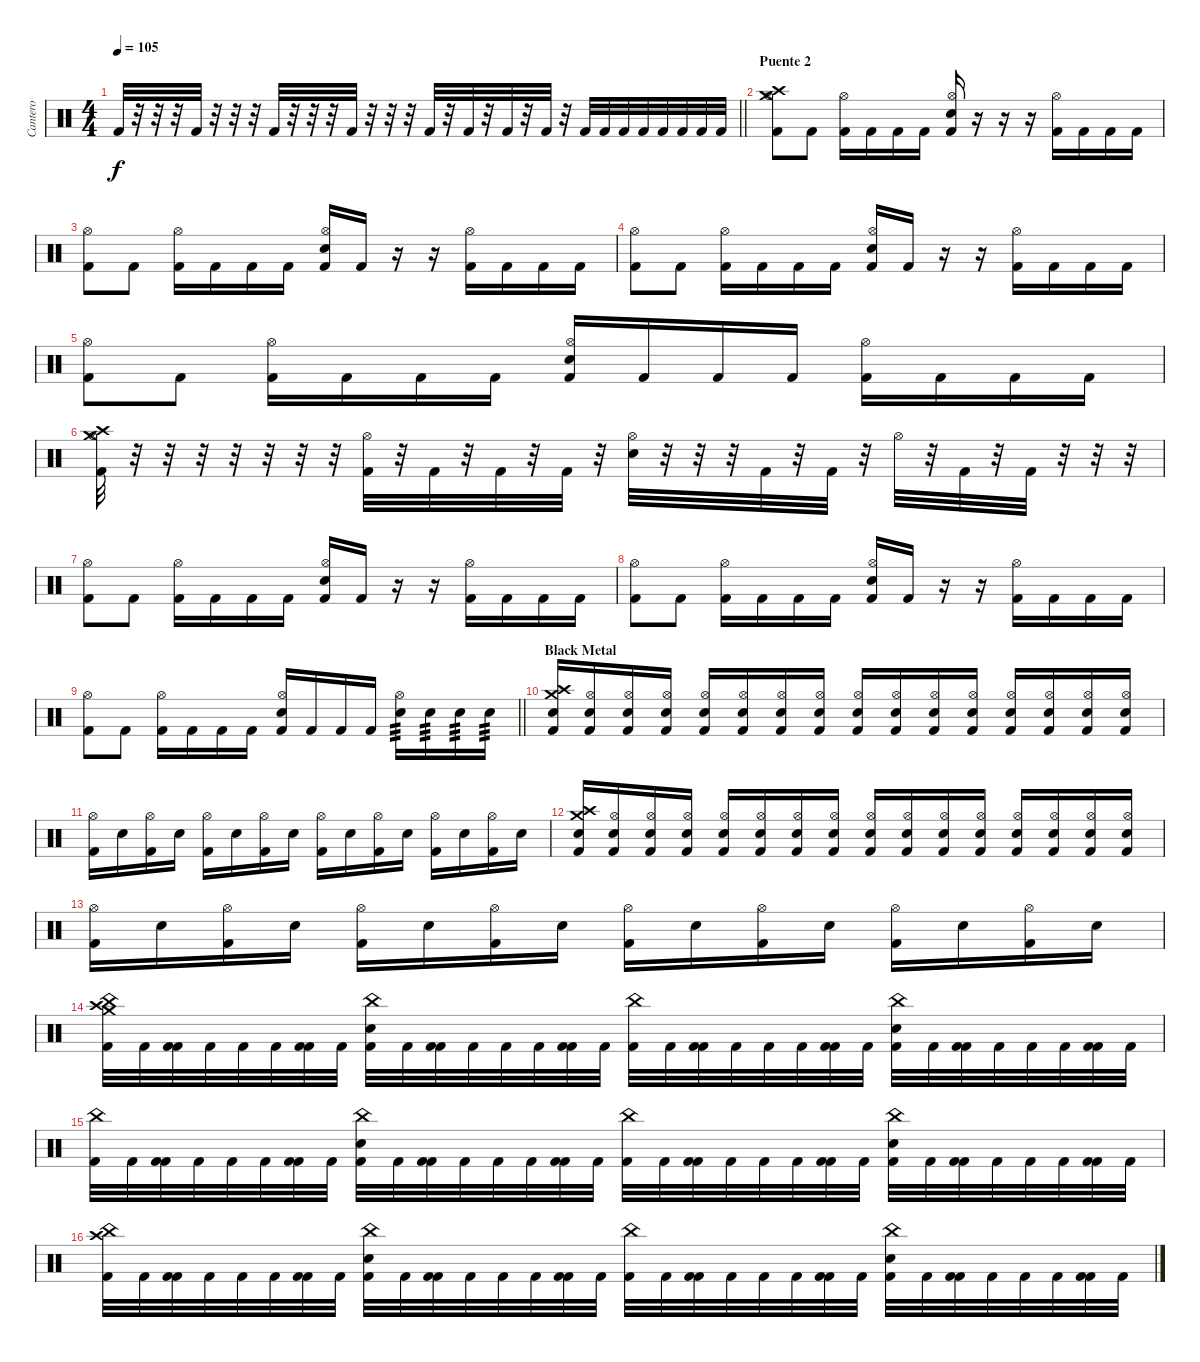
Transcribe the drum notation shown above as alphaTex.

\track ("Cantero" "Cantero") {instrument percussion}
\staff {score}
\articulation defaults
\ts (4 4)
\tempo 105
\clef neutral
\barLineRight lightlight
\ks c "Kick (hit) 2".32{dy f}
r.32 r.32 r.32 "Kick (hit) 2".32 r.32 r.32 r.32 "Kick (hit) 2".32 r.32 r.32 r.32 "Kick (hit) 2".32 r.32 r.32 r.32 "Kick (hit) 2".32 r.32 "Kick (hit) 2".32 r.32 "Kick (hit) 2".32 r.32 "Kick (hit) 2".32 r.32 "Kick (hit) 2".32 "Kick (hit) 2".32 "Kick (hit) 2".32 "Kick (hit) 2".32 "Kick (hit) 2".32 "Kick (hit) 2".32 "Kick (hit) 2".32 "Kick (hit) 2".32 |
\section ("" "Puente 2")
("Kick (hit) 2" "Hi-Hat (open)" "Crash high (hit)" "Crash medium (hit)").8 "Kick (hit) 2".8 ("Kick (hit) 2" "Hi-Hat (open)").16 "Kick (hit) 2".16 "Kick (hit) 2".16 "Kick (hit) 2".16 ("Kick (hit) 2" "Hi-Hat (open)" "Electric Snare (hit)").16 r.16 r.16 r.16 ("Kick (hit) 2" "Hi-Hat (open)").16 "Kick (hit) 2".16 "Kick (hit) 2".16 "Kick (hit) 2".16 |
("Kick (hit) 2" "Hi-Hat (open)").8 "Kick (hit) 2".8 ("Kick (hit) 2" "Hi-Hat (open)").16 "Kick (hit) 2".16 "Kick (hit) 2".16 "Kick (hit) 2".16 ("Kick (hit) 2" "Hi-Hat (open)" "Electric Snare (hit)").16 "Kick (hit) 2".16 r.16 r.16 ("Kick (hit) 2" "Hi-Hat (open)").16 "Kick (hit) 2".16 "Kick (hit) 2".16 "Kick (hit) 2".16 |
("Kick (hit) 2" "Hi-Hat (open)").8 "Kick (hit) 2".8 ("Kick (hit) 2" "Hi-Hat (open)").16 "Kick (hit) 2".16 "Kick (hit) 2".16 "Kick (hit) 2".16 ("Kick (hit) 2" "Hi-Hat (open)" "Electric Snare (hit)").16 "Kick (hit) 2".16 r.16 r.16 ("Kick (hit) 2" "Hi-Hat (open)").16 "Kick (hit) 2".16 "Kick (hit) 2".16 "Kick (hit) 2".16 |
("Kick (hit) 2" "Hi-Hat (open)").8 "Kick (hit) 2".8 ("Kick (hit) 2" "Hi-Hat (open)").16 "Kick (hit) 2".16 "Kick (hit) 2".16 "Kick (hit) 2".16 ("Kick (hit) 2" "Hi-Hat (open)" "Electric Snare (hit)").16 "Kick (hit) 2".16 "Kick (hit) 2".16 "Kick (hit) 2".16 ("Kick (hit) 2" "Hi-Hat (open)").16 "Kick (hit) 2".16 "Kick (hit) 2".16 "Kick (hit) 2".16 |
("Kick (hit) 2" "Crash medium (hit)" "Hi-Hat (open)" "Crash high (hit)").32 r.32 r.32 r.32 r.32 r.32 r.32 r.32 ("Kick (hit) 2" "Hi-Hat (open)").32 r.32 "Kick (hit) 2".32 r.32 "Kick (hit) 2".32 r.32 "Kick (hit) 2".32 r.32 ("Electric Snare (hit)" "Hi-Hat (open)").32 r.32 r.32 r.32 "Kick (hit) 2".32 r.32 "Kick (hit) 2".32 r.32 "Hi-Hat (open)".32 r.32 "Kick (hit) 2".32 r.32 "Kick (hit) 2".32 r.32 r.32 r.32 |
("Kick (hit) 2" "Hi-Hat (open)").8 "Kick (hit) 2".8 ("Kick (hit) 2" "Hi-Hat (open)").16 "Kick (hit) 2".16 "Kick (hit) 2".16 "Kick (hit) 2".16 ("Kick (hit) 2" "Hi-Hat (open)" "Electric Snare (hit)").16 "Kick (hit) 2".16 r.16 r.16 ("Kick (hit) 2" "Hi-Hat (open)").16 "Kick (hit) 2".16 "Kick (hit) 2".16 "Kick (hit) 2".16 |
("Kick (hit) 2" "Hi-Hat (open)").8 "Kick (hit) 2".8 ("Kick (hit) 2" "Hi-Hat (open)").16 "Kick (hit) 2".16 "Kick (hit) 2".16 "Kick (hit) 2".16 ("Kick (hit) 2" "Hi-Hat (open)" "Electric Snare (hit)").16 "Kick (hit) 2".16 r.16 r.16 ("Kick (hit) 2" "Hi-Hat (open)").16 "Kick (hit) 2".16 "Kick (hit) 2".16 "Kick (hit) 2".16 |
\barLineRight lightlight
("Kick (hit) 2" "Hi-Hat (open)").8 "Kick (hit) 2".8 ("Kick (hit) 2" "Hi-Hat (open)").16 "Kick (hit) 2".16 "Kick (hit) 2".16 "Kick (hit) 2".16 ("Kick (hit) 2" "Hi-Hat (open)" "Electric Snare (hit)").16 "Kick (hit) 2".16 "Kick (hit) 2".16 "Kick (hit) 2".16 ("Electric Snare (hit)" "Hi-Hat (open)").16{tp 3} "Electric Snare (hit)".16{tp 3} "Electric Snare (hit)".16{tp 3} "Electric Snare (hit)".16{tp 3} |
\section ("" "Black Metal")
("Electric Snare (hit)" "Crash high (hit)" "Kick (hit) 2" "Crash medium (hit)").16 ("Electric Snare (hit)" "Hi-Hat (open)" "Kick (hit) 2").16 ("Electric Snare (hit)" "Hi-Hat (open)" "Kick (hit) 2").16 ("Electric Snare (hit)" "Hi-Hat (open)" "Kick (hit) 2").16 ("Electric Snare (hit)" "Hi-Hat (open)" "Kick (hit) 2").16 ("Electric Snare (hit)" "Hi-Hat (open)" "Kick (hit) 2").16 ("Electric Snare (hit)" "Hi-Hat (open)" "Kick (hit) 2").16 ("Electric Snare (hit)" "Hi-Hat (open)" "Kick (hit) 2").16 ("Electric Snare (hit)" "Hi-Hat (open)" "Kick (hit) 2").16 ("Electric Snare (hit)" "Hi-Hat (open)" "Kick (hit) 2").16 ("Electric Snare (hit)" "Hi-Hat (open)" "Kick (hit) 2").16 ("Electric Snare (hit)" "Hi-Hat (open)" "Kick (hit) 2").16 ("Electric Snare (hit)" "Hi-Hat (open)" "Kick (hit) 2").16 ("Electric Snare (hit)" "Hi-Hat (open)" "Kick (hit) 2").16 ("Electric Snare (hit)" "Hi-Hat (open)" "Kick (hit) 2").16 ("Electric Snare (hit)" "Hi-Hat (open)" "Kick (hit) 2").16 |
("Kick (hit) 2" "Hi-Hat (open)").16 "Electric Snare (hit)".16 ("Kick (hit) 2" "Hi-Hat (open)").16 "Electric Snare (hit)".16 ("Kick (hit) 2" "Hi-Hat (open)").16 "Electric Snare (hit)".16 ("Kick (hit) 2" "Hi-Hat (open)").16 "Electric Snare (hit)".16 ("Kick (hit) 2" "Hi-Hat (open)").16 "Electric Snare (hit)".16 ("Kick (hit) 2" "Hi-Hat (open)").16 "Electric Snare (hit)".16 ("Kick (hit) 2" "Hi-Hat (open)").16 "Electric Snare (hit)".16 ("Kick (hit) 2" "Hi-Hat (open)").16 "Electric Snare (hit)".16 |
("Electric Snare (hit)" "Kick (hit) 2" "Crash high (hit)" "Crash medium (hit)").16 ("Electric Snare (hit)" "Hi-Hat (open)" "Kick (hit) 2").16 ("Electric Snare (hit)" "Hi-Hat (open)" "Kick (hit) 2").16 ("Electric Snare (hit)" "Hi-Hat (open)" "Kick (hit) 2").16 ("Electric Snare (hit)" "Hi-Hat (open)" "Kick (hit) 2").16 ("Electric Snare (hit)" "Hi-Hat (open)" "Kick (hit) 2").16 ("Electric Snare (hit)" "Hi-Hat (open)" "Kick (hit) 2").16 ("Electric Snare (hit)" "Hi-Hat (open)" "Kick (hit) 2").16 ("Electric Snare (hit)" "Hi-Hat (open)" "Kick (hit) 2").16 ("Electric Snare (hit)" "Hi-Hat (open)" "Kick (hit) 2").16 ("Electric Snare (hit)" "Hi-Hat (open)" "Kick (hit) 2").16 ("Electric Snare (hit)" "Hi-Hat (open)" "Kick (hit) 2").16 ("Electric Snare (hit)" "Hi-Hat (open)" "Kick (hit) 2").16 ("Electric Snare (hit)" "Hi-Hat (open)" "Kick (hit) 2").16 ("Electric Snare (hit)" "Hi-Hat (open)" "Kick (hit) 2").16 ("Electric Snare (hit)" "Hi-Hat (open)" "Kick (hit) 2").16 |
("Kick (hit) 2" "Hi-Hat (open)").16 "Electric Snare (hit)".16 ("Kick (hit) 2" "Hi-Hat (open)").16 "Electric Snare (hit)".16 ("Kick (hit) 2" "Hi-Hat (open)").16 "Electric Snare (hit)".16 ("Kick (hit) 2" "Hi-Hat (open)").16 "Electric Snare (hit)".16 ("Kick (hit) 2" "Hi-Hat (open)").16 "Electric Snare (hit)".16 ("Kick (hit) 2" "Hi-Hat (open)").16 "Electric Snare (hit)".16 ("Kick (hit) 2" "Hi-Hat (open)").16 "Electric Snare (hit)".16 ("Kick (hit) 2" "Hi-Hat (open)").16 "Electric Snare (hit)".16 |
("China (hit)" "Crash high (hit)" "Crash medium (hit)" "Kick (hit) 2").32 "Kick (hit) 2".32 ("Kick (hit) 2" "Kick (hit) 2").32 "Kick (hit) 2".32 "Kick (hit) 2".32 "Kick (hit) 2".32 ("Kick (hit) 2" "Kick (hit) 2").32 "Kick (hit) 2".32 ("China (hit)" "Electric Snare (hit)" "Kick (hit) 2").32 "Kick (hit) 2".32 ("Kick (hit) 2" "Kick (hit) 2").32 "Kick (hit) 2".32 "Kick (hit) 2".32 "Kick (hit) 2".32 ("Kick (hit) 2" "Kick (hit) 2").32 "Kick (hit) 2".32 ("China (hit)" "Kick (hit) 2").32 "Kick (hit) 2".32 ("Kick (hit) 2" "Kick (hit) 2").32 "Kick (hit) 2".32 "Kick (hit) 2".32 "Kick (hit) 2".32 ("Kick (hit) 2" "Kick (hit) 2").32 "Kick (hit) 2".32 ("China (hit)" "Electric Snare (hit)" "Kick (hit) 2").32 "Kick (hit) 2".32 ("Kick (hit) 2" "Kick (hit) 2").32 "Kick (hit) 2".32 "Kick (hit) 2".32 "Kick (hit) 2".32 ("Kick (hit) 2" "Kick (hit) 2").32 "Kick (hit) 2".32 |
("China (hit)" "Kick (hit) 2").32 "Kick (hit) 2".32 ("Kick (hit) 2" "Kick (hit) 2").32 "Kick (hit) 2".32 "Kick (hit) 2".32 "Kick (hit) 2".32 ("Kick (hit) 2" "Kick (hit) 2").32 "Kick (hit) 2".32 ("China (hit)" "Electric Snare (hit)" "Kick (hit) 2").32 "Kick (hit) 2".32 ("Kick (hit) 2" "Kick (hit) 2").32 "Kick (hit) 2".32 "Kick (hit) 2".32 "Kick (hit) 2".32 ("Kick (hit) 2" "Kick (hit) 2").32 "Kick (hit) 2".32 ("China (hit)" "Kick (hit) 2").32 "Kick (hit) 2".32 ("Kick (hit) 2" "Kick (hit) 2").32 "Kick (hit) 2".32 "Kick (hit) 2".32 "Kick (hit) 2".32 ("Kick (hit) 2" "Kick (hit) 2").32 "Kick (hit) 2".32 ("China (hit)" "Electric Snare (hit)" "Kick (hit) 2").32 "Kick (hit) 2".32 ("Kick (hit) 2" "Kick (hit) 2").32 "Kick (hit) 2".32 "Kick (hit) 2".32 "Kick (hit) 2".32 ("Kick (hit) 2" "Kick (hit) 2").32 "Kick (hit) 2".32 |
("China (hit)" "Crash high (hit)" "Kick (hit) 2").32 "Kick (hit) 2".32 ("Kick (hit) 2" "Kick (hit) 2").32 "Kick (hit) 2".32 "Kick (hit) 2".32 "Kick (hit) 2".32 ("Kick (hit) 2" "Kick (hit) 2").32 "Kick (hit) 2".32 ("China (hit)" "Electric Snare (hit)" "Kick (hit) 2").32 "Kick (hit) 2".32 ("Kick (hit) 2" "Kick (hit) 2").32 "Kick (hit) 2".32 "Kick (hit) 2".32 "Kick (hit) 2".32 ("Kick (hit) 2" "Kick (hit) 2").32 "Kick (hit) 2".32 ("China (hit)" "Kick (hit) 2").32 "Kick (hit) 2".32 ("Kick (hit) 2" "Kick (hit) 2").32 "Kick (hit) 2".32 "Kick (hit) 2".32 "Kick (hit) 2".32 ("Kick (hit) 2" "Kick (hit) 2").32 "Kick (hit) 2".32 ("China (hit)" "Electric Snare (hit)" "Kick (hit) 2").32 "Kick (hit) 2".32 ("Kick (hit) 2" "Kick (hit) 2").32 "Kick (hit) 2".32 "Kick (hit) 2".32 "Kick (hit) 2".32 ("Kick (hit) 2" "Kick (hit) 2").32 "Kick (hit) 2".32
